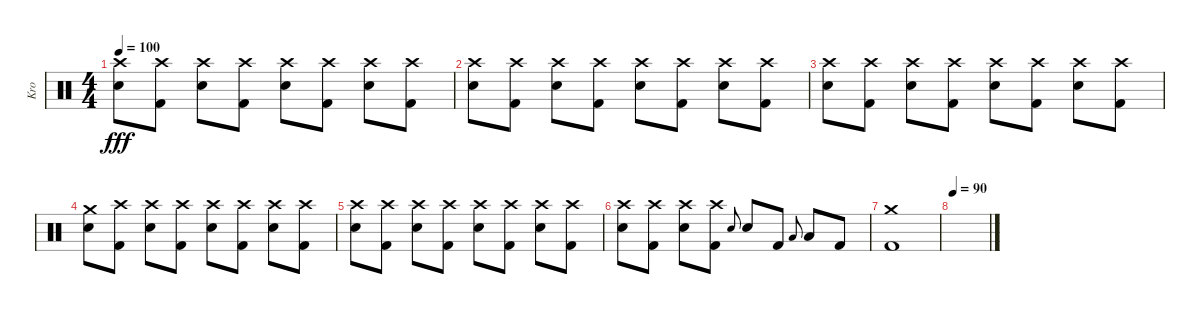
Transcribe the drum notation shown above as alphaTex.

\track ("Kro" "Kro") {instrument percussion}
\staff {score}
\articulation defaults
\ts (4 4)
\tempo 100
\clef neutral
\ks c
("Crash high (hit)" "Electric Snare (hit)").8{dy fff} ("Crash high (hit)" "Kick (hit) 2").8 ("Crash high (hit)" "Electric Snare (hit)").8 ("Crash high (hit)" "Kick (hit) 2").8 ("Crash high (hit)" "Electric Snare (hit)").8 ("Crash high (hit)" "Kick (hit) 2").8 ("Crash high (hit)" "Electric Snare (hit)").8 ("Crash high (hit)" "Kick (hit) 2").8 |
("Crash high (hit)" "Electric Snare (hit)").8 ("Crash high (hit)" "Kick (hit) 2").8 ("Crash high (hit)" "Electric Snare (hit)").8 ("Crash high (hit)" "Kick (hit) 2").8 ("Crash high (hit)" "Electric Snare (hit)").8 ("Crash high (hit)" "Kick (hit) 2").8 ("Crash high (hit)" "Electric Snare (hit)").8 ("Crash high (hit)" "Kick (hit) 2").8 |
("Crash high (hit)" "Electric Snare (hit)").8 ("Crash high (hit)" "Kick (hit) 2").8 ("Crash high (hit)" "Electric Snare (hit)").8 ("Crash high (hit)" "Kick (hit) 2").8 ("Crash high (hit)" "Electric Snare (hit)").8 ("Crash high (hit)" "Kick (hit) 2").8 ("Crash high (hit)" "Electric Snare (hit)").8 ("Crash high (hit)" "Kick (hit) 2").8 |
("Crash medium (hit)" "Electric Snare (hit)").8 ("Crash high (hit)" "Kick (hit) 2").8 ("Crash high (hit)" "Electric Snare (hit)").8 ("Crash high (hit)" "Kick (hit) 2").8 ("Crash high (hit)" "Electric Snare (hit)").8 ("Crash high (hit)" "Kick (hit) 2").8 ("Crash high (hit)" "Electric Snare (hit)").8 ("Crash high (hit)" "Kick (hit) 2").8 |
("Crash high (hit)" "Electric Snare (hit)").8 ("Crash high (hit)" "Kick (hit) 2").8 ("Crash high (hit)" "Electric Snare (hit)").8 ("Crash high (hit)" "Kick (hit) 2").8 ("Crash high (hit)" "Electric Snare (hit)").8 ("Crash high (hit)" "Kick (hit) 2").8 ("Crash high (hit)" "Electric Snare (hit)").8 ("Crash high (hit)" "Kick (hit) 2").8 |
("Crash high (hit)" "Electric Snare (hit)").8 ("Crash high (hit)" "Kick (hit) 2").8 ("Crash high (hit)" "Electric Snare (hit)").8 ("Crash high (hit)" "Kick (hit) 2").8 "Electric Snare (hit)".8{gr onbeat} "Electric Snare (hit)".8 "Kick (hit) 2".8 "Low Tom (hit)".8{gr onbeat} "Low Tom (hit)".8 "Kick (hit) 2".8 |
("Crash medium (hit)" "Kick (hit) 2").1 |
\tempo 90
